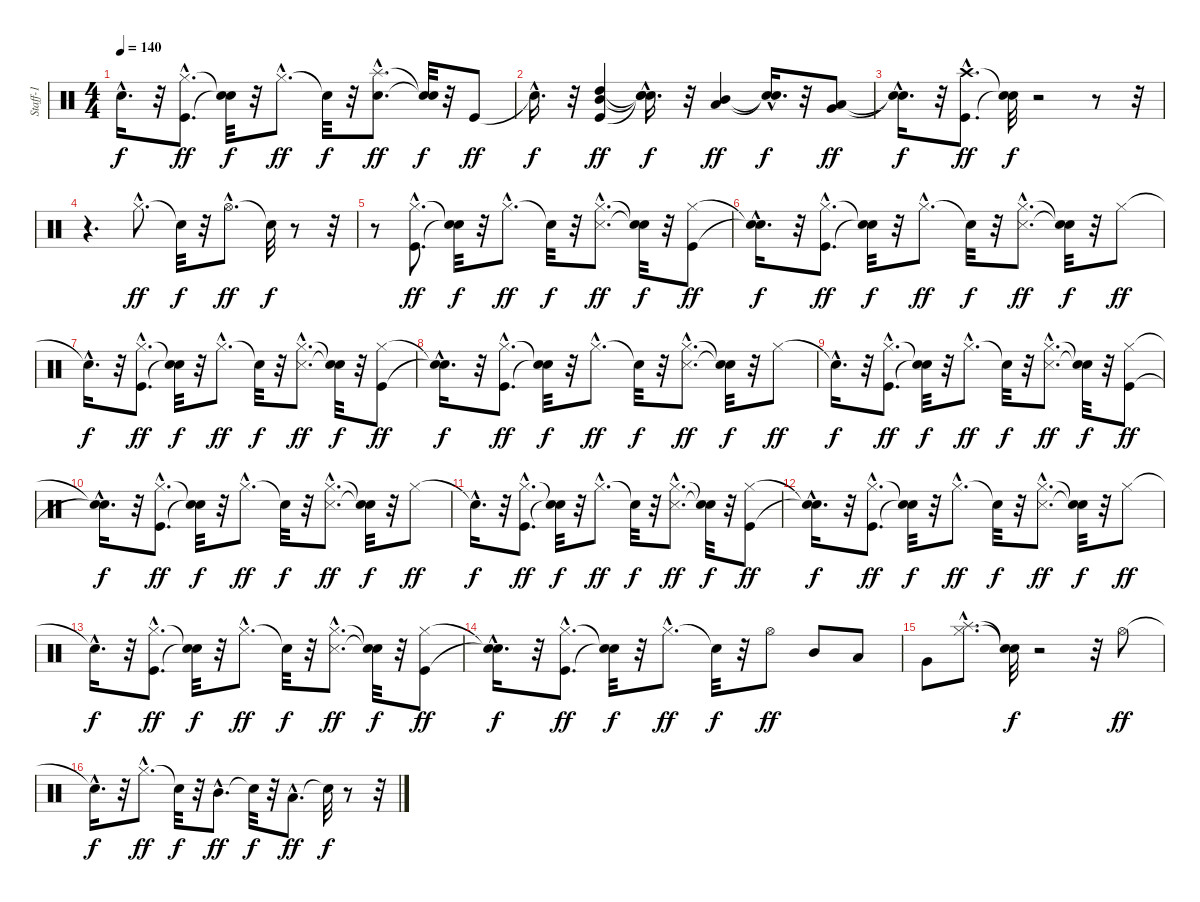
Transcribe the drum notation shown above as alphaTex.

\track ("Staff-1" "Staff-1") {instrument percussion}
\staff {score}
\articulation defaults
\ts (4 4)
\tempo 140
\clef neutral
\ks c "Snare (hit)"{hac t}.16{d dy f}
r.32 ("Kick (hit)"{hac} "Hi-Hat (closed)"{hac}).8{d dy ff} ("Snare (hit)"{t} "Snare (hit)"{t}).32{dy f} r.32 "Hi-Hat (closed)"{hac}.8{d dy ff} "Snare (hit)"{t}.32{dy f} r.32 ("Snare (hit) 2"{hac} "Splash (hit)"{hac}).8{d dy ff} ("Snare (hit)"{t} "Snare (hit)"{t}).32{dy f} r.32 "Kick (hit)".8{dy ff} |
"Snare (hit)"{hac t}.16{d dy f} r.32 ("Kick (hit)" "Mid Tom (hit)" "High Tom (hit)").4{dy ff} ("Snare (hit)"{hac t} "Snare (hit)"{hac t} "Snare (hit)"{hac t}).16{d dy f} r.32 ("Low Tom (hit)" "Mid Tom (hit)").4{dy ff} ("Snare (hit)"{hac t} "Snare (hit)"{hac t}).16{d dy f} r.32 ("Low Floor Tom (hit)" "Very Low Tom (hit)").8{dy ff} |
("Snare (hit)"{hac t} "Snare (hit)"{hac t}).16{d dy f} r.32 ("Kick (hit)"{hac} "Crash high (hit)"{hac}).8{d dy ff} ("Snare (hit)"{t} "Snare (hit)"{t}).32{dy f} r.2 r.8 r.32 |
r.4{d} "Hi-Hat (closed)"{hac}.8{d dy ff} "Snare (hit)"{t}.32{dy f} r.32 "Hi-Hat (open)"{hac}.8{d dy ff} "Snare (hit)"{t}.32{dy f} r.8 r.32 |
r.8 ("Kick (hit)"{hac} "Hi-Hat (closed)"{hac}).8{d dy ff} ("Snare (hit)"{t} "Snare (hit)"{t}).32{dy f} r.32 "Hi-Hat (closed)"{hac}.8{d dy ff} "Snare (hit)"{t}.32{dy f} r.32 ("Snare (side stick) 3"{hac} "Hi-Hat (closed)"{hac}).8{d dy ff} ("Snare (hit)"{t} "Snare (hit)"{t}).32{dy f} r.32 ("Kick (hit)" "Hi-Hat (closed)").8{dy ff} |
("Snare (hit)"{hac t} "Snare (hit)"{hac t}).16{d dy f} r.32 ("Kick (hit)"{hac} "Hi-Hat (closed)"{hac}).8{d dy ff} ("Snare (hit)"{t} "Snare (hit)"{t}).32{dy f} r.32 "Hi-Hat (closed)"{hac}.8{d dy ff} "Snare (hit)"{t}.32{dy f} r.32 ("Snare (side stick) 3"{hac} "Hi-Hat (closed)"{hac}).8{d dy ff} ("Snare (hit)"{t} "Snare (hit)"{t}).32{dy f} r.32 "Hi-Hat (closed)".8{dy ff} |
"Snare (hit)"{hac t}.16{d dy f} r.32 ("Kick (hit)"{hac} "Hi-Hat (closed)"{hac}).8{d dy ff} ("Snare (hit)"{t} "Snare (hit)"{t}).32{dy f} r.32 "Hi-Hat (closed)"{hac}.8{d dy ff} "Snare (hit)"{t}.32{dy f} r.32 ("Snare (side stick) 3"{hac} "Hi-Hat (closed)"{hac}).8{d dy ff} ("Snare (hit)"{t} "Snare (hit)"{t}).32{dy f} r.32 ("Kick (hit)" "Hi-Hat (closed)").8{dy ff} |
("Snare (hit)"{hac t} "Snare (hit)"{hac t}).16{d dy f} r.32 ("Kick (hit)"{hac} "Hi-Hat (closed)"{hac}).8{d dy ff} ("Snare (hit)"{t} "Snare (hit)"{t}).32{dy f} r.32 "Hi-Hat (closed)"{hac}.8{d dy ff} "Snare (hit)"{t}.32{dy f} r.32 ("Snare (side stick) 3"{hac} "Hi-Hat (closed)"{hac}).8{d dy ff} ("Snare (hit)"{t} "Snare (hit)"{t}).32{dy f} r.32 "Hi-Hat (closed)".8{dy ff} |
"Snare (hit)"{hac t}.16{d dy f} r.32 ("Kick (hit)"{hac} "Hi-Hat (closed)"{hac}).8{d dy ff} ("Snare (hit)"{t} "Snare (hit)"{t}).32{dy f} r.32 "Hi-Hat (closed)"{hac}.8{d dy ff} "Snare (hit)"{t}.32{dy f} r.32 ("Snare (side stick) 3"{hac} "Hi-Hat (closed)"{hac}).8{d dy ff} ("Snare (hit)"{t} "Snare (hit)"{t}).32{dy f} r.32 ("Kick (hit)" "Hi-Hat (closed)").8{dy ff} |
("Snare (hit)"{hac t} "Snare (hit)"{hac t}).16{d dy f} r.32 ("Kick (hit)"{hac} "Hi-Hat (closed)"{hac}).8{d dy ff} ("Snare (hit)"{t} "Snare (hit)"{t}).32{dy f} r.32 "Hi-Hat (closed)"{hac}.8{d dy ff} "Snare (hit)"{t}.32{dy f} r.32 ("Snare (side stick) 3"{hac} "Hi-Hat (closed)"{hac}).8{d dy ff} ("Snare (hit)"{t} "Snare (hit)"{t}).32{dy f} r.32 "Hi-Hat (closed)".8{dy ff} |
"Snare (hit)"{hac t}.16{d dy f} r.32 ("Kick (hit)"{hac} "Hi-Hat (closed)"{hac}).8{d dy ff} ("Snare (hit)"{t} "Snare (hit)"{t}).32{dy f} r.32 "Hi-Hat (closed)"{hac}.8{d dy ff} "Snare (hit)"{t}.32{dy f} r.32 ("Snare (side stick) 3"{hac} "Hi-Hat (closed)"{hac}).8{d dy ff} ("Snare (hit)"{t} "Snare (hit)"{t}).32{dy f} r.32 ("Kick (hit)" "Hi-Hat (closed)").8{dy ff} |
("Snare (hit)"{hac t} "Snare (hit)"{hac t}).16{d dy f} r.32 ("Kick (hit)"{hac} "Hi-Hat (closed)"{hac}).8{d dy ff} ("Snare (hit)"{t} "Snare (hit)"{t}).32{dy f} r.32 "Hi-Hat (closed)"{hac}.8{d dy ff} "Snare (hit)"{t}.32{dy f} r.32 ("Snare (side stick) 3"{hac} "Hi-Hat (closed)"{hac}).8{d dy ff} ("Snare (hit)"{t} "Snare (hit)"{t}).32{dy f} r.32 "Hi-Hat (closed)".8{dy ff} |
"Snare (hit)"{hac t}.16{d dy f} r.32 ("Kick (hit)"{hac} "Hi-Hat (closed)"{hac}).8{d dy ff} ("Snare (hit)"{t} "Snare (hit)"{t}).32{dy f} r.32 "Hi-Hat (closed)"{hac}.8{d dy ff} "Snare (hit)"{t}.32{dy f} r.32 ("Snare (side stick) 3"{hac} "Hi-Hat (closed)"{hac}).8{d dy ff} ("Snare (hit)"{t} "Snare (hit)"{t}).32{dy f} r.32 ("Kick (hit)" "Hi-Hat (closed)").8{dy ff} |
("Snare (hit)"{hac t} "Snare (hit)"{hac t}).16{d dy f} r.32 ("Kick (hit)"{hac} "Hi-Hat (closed)"{hac}).8{d dy ff} ("Snare (hit)"{t} "Snare (hit)"{t}).32{dy f} r.32 "Hi-Hat (closed)"{hac}.8{d dy ff} "Snare (hit)"{t}.32{dy f} r.32 "Hi-Hat (open)".8{dy ff} "Mid Tom (hit)".8{volume 8} "Low Tom (hit)".8 |
"Very Low Tom (hit)".8 ("Hi-Hat (closed)"{hac} "Splash (hit)"{hac}).8{d} ("Snare (hit)"{t} "Snare (hit)"{t}).32{dy f} r.2 r.32 "Hi-Hat (open)".8{dy ff volume 16} |
"Snare (hit)"{hac t}.16{d dy f} r.32 "Hi-Hat (closed)"{hac}.8{d dy ff volume 8} "Snare (hit)"{t}.32{dy f} r.32 "Mid Tom (hit)"{hac}.8{d dy ff volume 16} "Snare (hit)"{t}.32{dy f} r.32 "Low Tom (hit)"{hac}.8{d dy ff} "Snare (hit)"{t}.32{dy f} r.8 r.32
